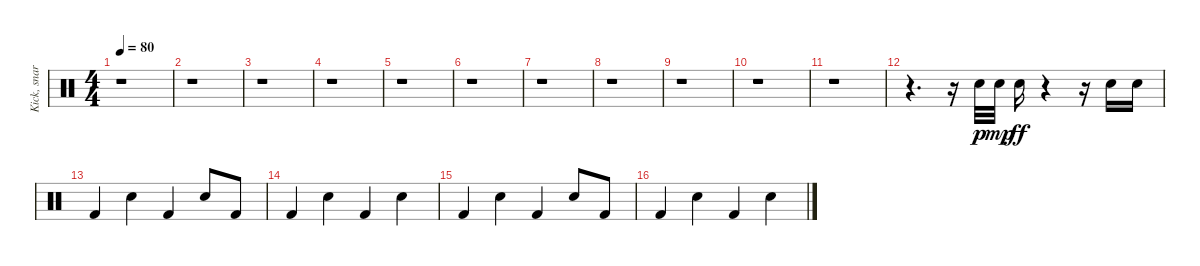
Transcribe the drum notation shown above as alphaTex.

\track ("Kick, snare" "Kick, snar") {instrument percussion}
\staff {score}
\articulation defaults
\ts (4 4)
\tempo 80
\clef neutral
\ks c
r.1{dy ff} |
r.1 |
r.1 |
r.1 |
r.1 |
r.1 |
r.1 |
r.1 |
r.1 |
r.1 |
r.1 |
r.4{d} r.16 "Snare (hit) 2".32{dy p} "Snare (hit) 2".32{dy mp} "Snare (hit) 2".16{dy ff} r.4 r.16 "Snare (hit) 2".16 "Snare (hit) 2".16 |
"Kick (hit) 2".4 "Snare (hit) 2".4 "Kick (hit) 2".4 "Snare (hit) 2".8 "Kick (hit) 2".8 |
"Kick (hit) 2".4 "Snare (hit) 2".4 "Kick (hit) 2".4 "Snare (hit) 2".4 |
"Kick (hit) 2".4 "Snare (hit) 2".4 "Kick (hit) 2".4 "Snare (hit) 2".8 "Kick (hit) 2".8 |
"Kick (hit) 2".4 "Snare (hit) 2".4 "Kick (hit) 2".4 "Snare (hit) 2".4
